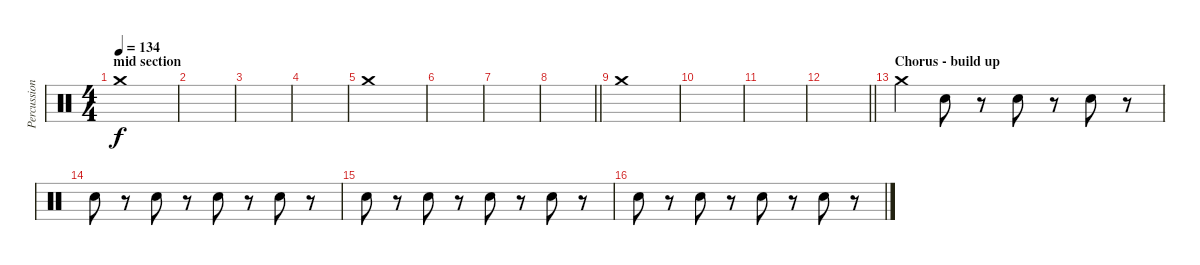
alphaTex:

\track ("Percussion" "Percussion") {instrument percussion}
\staff {score}
\articulation defaults
\ts (4 4)
\section ("" "mid section")
\tempo 134
\clef neutral
\ks c "Crash medium (hit)".1{dy f}
|
|
|
|
"Crash medium (hit)".1 |
|
|
\barLineRight lightlight
|
"Crash medium (hit)".1 |
|
|
\barLineRight lightlight
|
\section ("" "Chorus - build up")
"Crash medium (hit)".4 "Hand Clap (hit)".8 r.8 "Hand Clap (hit)".8 r.8 "Hand Clap (hit)".8 r.8 |
"Hand Clap (hit)".8 r.8 "Hand Clap (hit)".8 r.8 "Hand Clap (hit)".8 r.8 "Hand Clap (hit)".8 r.8 |
"Hand Clap (hit)".8 r.8 "Hand Clap (hit)".8 r.8 "Hand Clap (hit)".8 r.8 "Hand Clap (hit)".8 r.8 |
"Hand Clap (hit)".8 r.8 "Hand Clap (hit)".8 r.8 "Hand Clap (hit)".8 r.8 "Hand Clap (hit)".8 r.8
